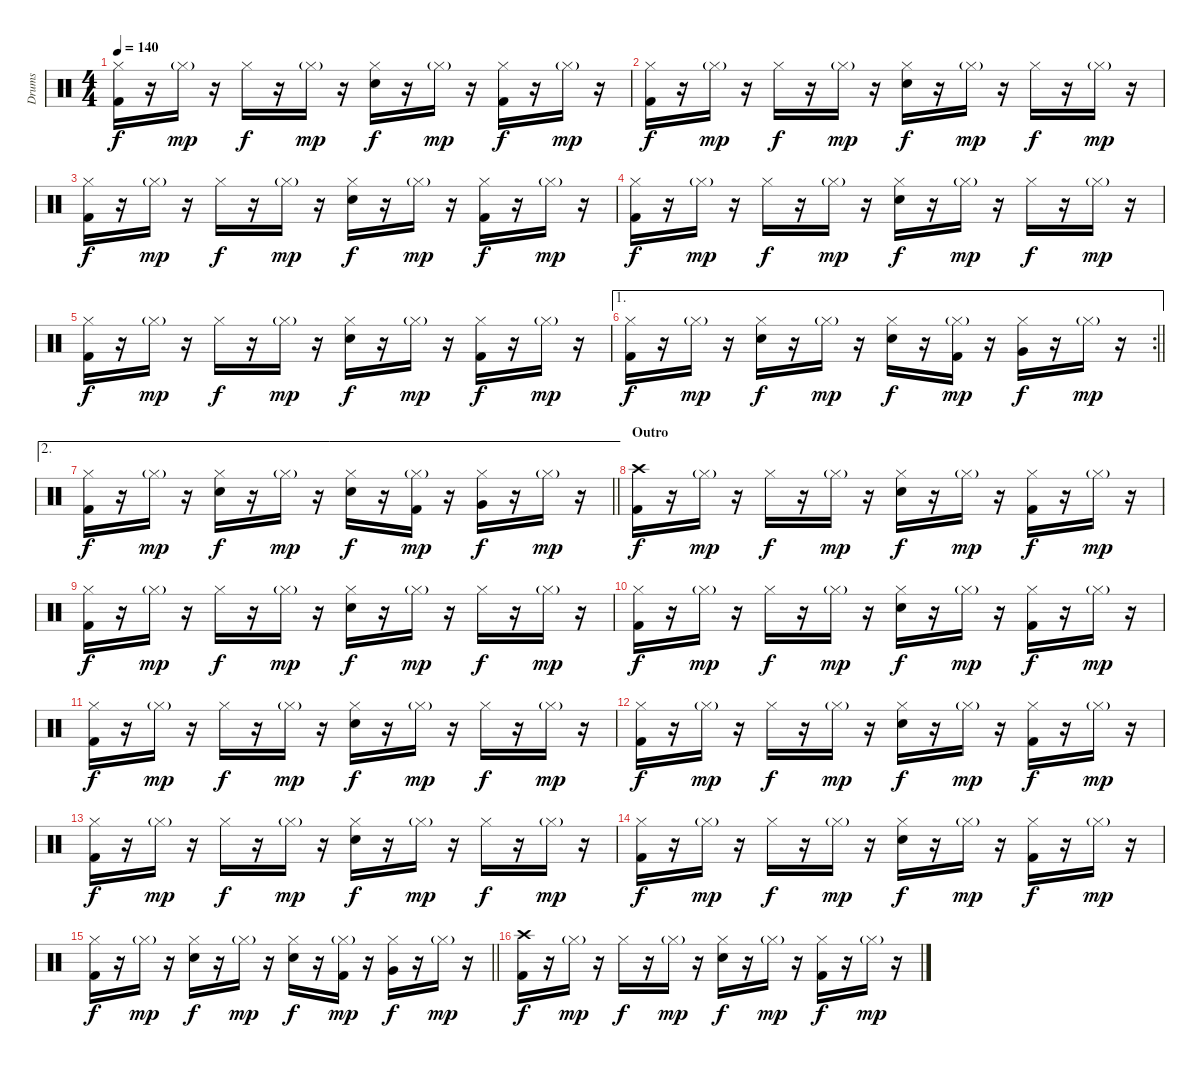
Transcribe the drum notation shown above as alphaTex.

\track ("Drums" "Drums") {instrument percussion}
\staff {score}
\articulation defaults
\ts (4 4)
\tempo 140
\clef neutral
\ks c
("Hi-Hat (closed)" "Kick (hit) 2").16{dy f} r.16 "Hi-Hat (closed)"{g}.16{dy mp} r.16 "Hi-Hat (closed)".16{dy f} r.16 "Hi-Hat (closed)"{g}.16{dy mp} r.16 ("Hi-Hat (closed)" "Snare (hit) 2").16{dy f} r.16 "Hi-Hat (closed)"{g}.16{dy mp} r.16 ("Hi-Hat (closed)" "Kick (hit) 2").16{dy f} r.16 "Hi-Hat (closed)"{g}.16{dy mp} r.16 |
("Hi-Hat (closed)" "Kick (hit) 2").16{dy f} r.16 "Hi-Hat (closed)"{g}.16{dy mp} r.16 "Hi-Hat (closed)".16{dy f} r.16 "Hi-Hat (closed)"{g}.16{dy mp} r.16 ("Hi-Hat (closed)" "Snare (hit) 2").16{dy f} r.16 "Hi-Hat (closed)"{g}.16{dy mp} r.16 "Hi-Hat (closed)".16{dy f} r.16 "Hi-Hat (closed)"{g}.16{dy mp} r.16 |
("Hi-Hat (closed)" "Kick (hit) 2").16{dy f} r.16 "Hi-Hat (closed)"{g}.16{dy mp} r.16 "Hi-Hat (closed)".16{dy f} r.16 "Hi-Hat (closed)"{g}.16{dy mp} r.16 ("Hi-Hat (closed)" "Snare (hit) 2").16{dy f} r.16 "Hi-Hat (closed)"{g}.16{dy mp} r.16 ("Hi-Hat (closed)" "Kick (hit) 2").16{dy f} r.16 "Hi-Hat (closed)"{g}.16{dy mp} r.16 |
("Hi-Hat (closed)" "Kick (hit) 2").16{dy f} r.16 "Hi-Hat (closed)"{g}.16{dy mp} r.16 "Hi-Hat (closed)".16{dy f} r.16 "Hi-Hat (closed)"{g}.16{dy mp} r.16 ("Hi-Hat (closed)" "Snare (hit) 2").16{dy f} r.16 "Hi-Hat (closed)"{g}.16{dy mp} r.16 "Hi-Hat (closed)".16{dy f} r.16 "Hi-Hat (closed)"{g}.16{dy mp} r.16 |
("Hi-Hat (closed)" "Kick (hit) 2").16{dy f} r.16 "Hi-Hat (closed)"{g}.16{dy mp} r.16 "Hi-Hat (closed)".16{dy f} r.16 "Hi-Hat (closed)"{g}.16{dy mp} r.16 ("Hi-Hat (closed)" "Snare (hit) 2").16{dy f} r.16 "Hi-Hat (closed)"{g}.16{dy mp} r.16 ("Hi-Hat (closed)" "Kick (hit) 2").16{dy f} r.16 "Hi-Hat (closed)"{g}.16{dy mp} r.16 |
\ae 1
\rc 2
\barLineRight lightlight
("Hi-Hat (closed)" "Kick (hit) 2").16{dy f} r.16 "Hi-Hat (closed)"{g}.16{dy mp} r.16 ("Hi-Hat (closed)" "Snare (hit) 2").16{dy f} r.16 "Hi-Hat (closed)"{g}.16{dy mp} r.16 ("Hi-Hat (closed)" "Snare (hit) 2").16{dy f} r.16 ("Hi-Hat (closed)"{g} "Kick (hit) 2").16{dy mp} r.16 ("Hi-Hat (closed)" "Very Low Tom (hit)").16{dy f} r.16 "Hi-Hat (closed)"{g}.16{dy mp} r.16 |
\ae 2
\barLineRight lightlight
("Hi-Hat (closed)" "Kick (hit) 2").16{dy f} r.16 "Hi-Hat (closed)"{g}.16{dy mp} r.16 ("Hi-Hat (closed)" "Snare (hit) 2").16{dy f} r.16 "Hi-Hat (closed)"{g}.16{dy mp} r.16 ("Hi-Hat (closed)" "Snare (hit) 2").16{dy f} r.16 ("Hi-Hat (closed)"{g} "Kick (hit) 2").16{dy mp} r.16 ("Hi-Hat (closed)" "Very Low Tom (hit)").16{dy f} r.16 "Hi-Hat (closed)"{g}.16{dy mp} r.16 |
\section ("" "Outro")
("Crash high (hit)" "Kick (hit) 2").16{dy f} r.16 "Hi-Hat (closed)"{g}.16{dy mp} r.16 "Hi-Hat (closed)".16{dy f} r.16 "Hi-Hat (closed)"{g}.16{dy mp} r.16 ("Hi-Hat (closed)" "Snare (hit) 2").16{dy f} r.16 "Hi-Hat (closed)"{g}.16{dy mp} r.16 ("Hi-Hat (closed)" "Kick (hit) 2").16{dy f} r.16 "Hi-Hat (closed)"{g}.16{dy mp} r.16 |
("Hi-Hat (closed)" "Kick (hit) 2").16{dy f} r.16 "Hi-Hat (closed)"{g}.16{dy mp} r.16 "Hi-Hat (closed)".16{dy f} r.16 "Hi-Hat (closed)"{g}.16{dy mp} r.16 ("Hi-Hat (closed)" "Snare (hit) 2").16{dy f} r.16 "Hi-Hat (closed)"{g}.16{dy mp} r.16 "Hi-Hat (closed)".16{dy f} r.16 "Hi-Hat (closed)"{g}.16{dy mp} r.16 |
("Hi-Hat (closed)" "Kick (hit) 2").16{dy f} r.16 "Hi-Hat (closed)"{g}.16{dy mp} r.16 "Hi-Hat (closed)".16{dy f} r.16 "Hi-Hat (closed)"{g}.16{dy mp} r.16 ("Hi-Hat (closed)" "Snare (hit) 2").16{dy f} r.16 "Hi-Hat (closed)"{g}.16{dy mp} r.16 ("Hi-Hat (closed)" "Kick (hit) 2").16{dy f} r.16 "Hi-Hat (closed)"{g}.16{dy mp} r.16 |
("Hi-Hat (closed)" "Kick (hit) 2").16{dy f} r.16 "Hi-Hat (closed)"{g}.16{dy mp} r.16 "Hi-Hat (closed)".16{dy f} r.16 "Hi-Hat (closed)"{g}.16{dy mp} r.16 ("Hi-Hat (closed)" "Snare (hit) 2").16{dy f} r.16 "Hi-Hat (closed)"{g}.16{dy mp} r.16 "Hi-Hat (closed)".16{dy f} r.16 "Hi-Hat (closed)"{g}.16{dy mp} r.16 |
("Hi-Hat (closed)" "Kick (hit) 2").16{dy f} r.16 "Hi-Hat (closed)"{g}.16{dy mp} r.16 "Hi-Hat (closed)".16{dy f} r.16 "Hi-Hat (closed)"{g}.16{dy mp} r.16 ("Hi-Hat (closed)" "Snare (hit) 2").16{dy f} r.16 "Hi-Hat (closed)"{g}.16{dy mp} r.16 ("Hi-Hat (closed)" "Kick (hit) 2").16{dy f} r.16 "Hi-Hat (closed)"{g}.16{dy mp} r.16 |
("Hi-Hat (closed)" "Kick (hit) 2").16{dy f} r.16 "Hi-Hat (closed)"{g}.16{dy mp} r.16 "Hi-Hat (closed)".16{dy f} r.16 "Hi-Hat (closed)"{g}.16{dy mp} r.16 ("Hi-Hat (closed)" "Snare (hit) 2").16{dy f} r.16 "Hi-Hat (closed)"{g}.16{dy mp} r.16 "Hi-Hat (closed)".16{dy f} r.16 "Hi-Hat (closed)"{g}.16{dy mp} r.16 |
("Hi-Hat (closed)" "Kick (hit) 2").16{dy f} r.16 "Hi-Hat (closed)"{g}.16{dy mp} r.16 "Hi-Hat (closed)".16{dy f} r.16 "Hi-Hat (closed)"{g}.16{dy mp} r.16 ("Hi-Hat (closed)" "Snare (hit) 2").16{dy f} r.16 "Hi-Hat (closed)"{g}.16{dy mp} r.16 ("Hi-Hat (closed)" "Kick (hit) 2").16{dy f} r.16 "Hi-Hat (closed)"{g}.16{dy mp} r.16 |
\barLineRight lightlight
("Hi-Hat (closed)" "Kick (hit) 2").16{dy f} r.16 "Hi-Hat (closed)"{g}.16{dy mp} r.16 ("Hi-Hat (closed)" "Snare (hit) 2").16{dy f} r.16 "Hi-Hat (closed)"{g}.16{dy mp} r.16 ("Hi-Hat (closed)" "Snare (hit) 2").16{dy f} r.16 ("Hi-Hat (closed)"{g} "Kick (hit) 2").16{dy mp} r.16 ("Hi-Hat (closed)" "Very Low Tom (hit)").16{dy f} r.16 "Hi-Hat (closed)"{g}.16{dy mp} r.16 |
("Crash high (hit)" "Kick (hit) 2").16{dy f} r.16 "Hi-Hat (closed)"{g}.16{dy mp} r.16 "Hi-Hat (closed)".16{dy f} r.16 "Hi-Hat (closed)"{g}.16{dy mp} r.16 ("Hi-Hat (closed)" "Snare (hit) 2").16{dy f} r.16 "Hi-Hat (closed)"{g}.16{dy mp} r.16 ("Hi-Hat (closed)" "Kick (hit) 2").16{dy f} r.16 "Hi-Hat (closed)"{g}.16{dy mp} r.16
